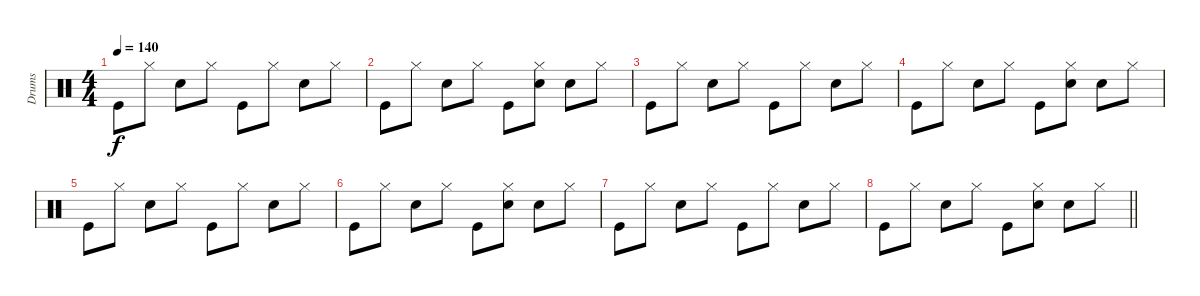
\track ("Drums" "Drums") {instrument percussion}
\staff {score}
\articulation defaults
\ts (4 4)
\tempo 140
\clef neutral
\ks c "Kick (hit)".8{dy f} "Hi-Hat (closed)".8 "Hand Clap (hit)".8 "Hi-Hat (closed)".8 "Kick (hit)".8 "Hi-Hat (closed)".8 "Hand Clap (hit)".8 "Hi-Hat (closed)".8
|
"Kick (hit)".8 "Hi-Hat (closed)".8 "Hand Clap (hit)".8 "Hi-Hat (closed)".8 "Kick (hit)".8 ("Hi-Hat (closed)" "Hand Clap (hit)").8 "Hand Clap (hit)".8 "Hi-Hat (closed)".8 |
"Kick (hit)".8 "Hi-Hat (closed)".8 "Hand Clap (hit)".8 "Hi-Hat (closed)".8 "Kick (hit)".8 "Hi-Hat (closed)".8 "Hand Clap (hit)".8 "Hi-Hat (closed)".8 |
"Kick (hit)".8 "Hi-Hat (closed)".8 "Hand Clap (hit)".8 "Hi-Hat (closed)".8 "Kick (hit)".8 ("Hi-Hat (closed)" "Hand Clap (hit)").8 "Hand Clap (hit)".8 "Hi-Hat (closed)".8 |
"Kick (hit)".8 "Hi-Hat (closed)".8 "Hand Clap (hit)".8 "Hi-Hat (closed)".8 "Kick (hit)".8 "Hi-Hat (closed)".8 "Hand Clap (hit)".8 "Hi-Hat (closed)".8 |
"Kick (hit)".8 "Hi-Hat (closed)".8 "Hand Clap (hit)".8 "Hi-Hat (closed)".8 "Kick (hit)".8 ("Hi-Hat (closed)" "Hand Clap (hit)").8 "Hand Clap (hit)".8 "Hi-Hat (closed)".8 |
"Kick (hit)".8 "Hi-Hat (closed)".8 "Hand Clap (hit)".8 "Hi-Hat (closed)".8 "Kick (hit)".8 "Hi-Hat (closed)".8 "Hand Clap (hit)".8 "Hi-Hat (closed)".8 |
\barLineRight lightlight "Kick (hit)".8 "Hi-Hat (closed)".8 "Hand Clap (hit)".8 "Hi-Hat (closed)".8 "Kick (hit)".8
("Hi-Hat (closed)" "Hand Clap (hit)").8 "Hand Clap (hit)".8 "Hi-Hat (closed)".8
